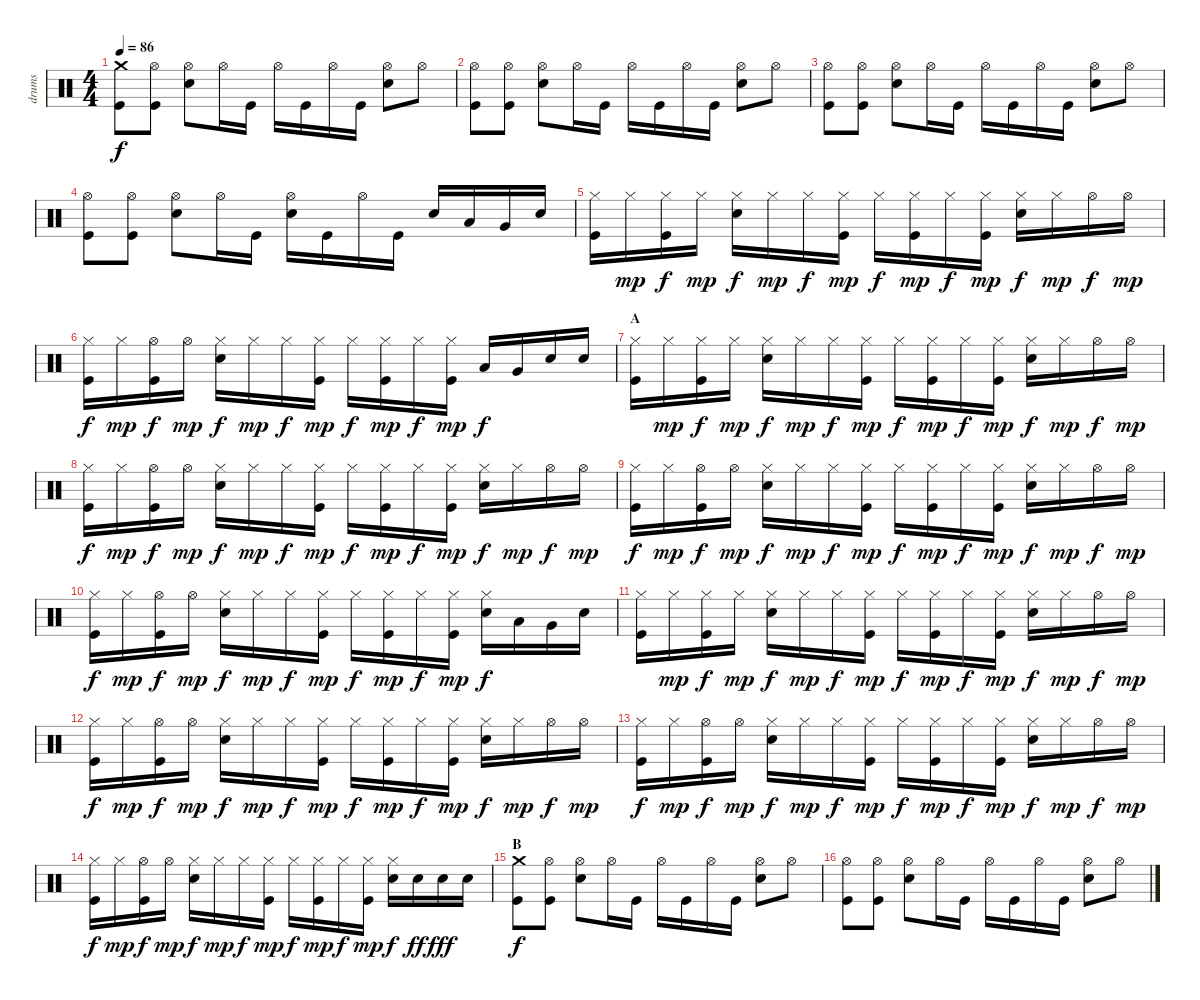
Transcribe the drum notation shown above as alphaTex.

\track ("drums" "drums") {instrument percussion}
\staff {score}
\articulation defaults
\ts (4 4)
\tempo 86
\clef neutral
\ks c
("Crash medium (hit)" "Kick (hit)").8{dy f} ("Hi-Hat (open)" "Kick (hit)").8 ("Hi-Hat (open)" "Electric Snare (hit)").8 "Hi-Hat (open)".16 "Kick (hit)".16 "Hi-Hat (open)".16 "Kick (hit)".16 "Hi-Hat (open)".16 "Kick (hit)".16 ("Hi-Hat (open)" "Electric Snare (hit)").8 "Hi-Hat (open)".8 |
("Hi-Hat (open)" "Kick (hit)").8 ("Hi-Hat (open)" "Kick (hit)").8 ("Hi-Hat (open)" "Electric Snare (hit)").8 "Hi-Hat (open)".16 "Kick (hit)".16 "Hi-Hat (open)".16 "Kick (hit)".16 "Hi-Hat (open)".16 "Kick (hit)".16 ("Hi-Hat (open)" "Electric Snare (hit)").8 "Hi-Hat (open)".8 |
("Hi-Hat (open)" "Kick (hit)").8 ("Hi-Hat (open)" "Kick (hit)").8 ("Hi-Hat (open)" "Electric Snare (hit)").8 "Hi-Hat (open)".16 "Kick (hit)".16 "Hi-Hat (open)".16 "Kick (hit)".16 "Hi-Hat (open)".16 "Kick (hit)".16 ("Hi-Hat (open)" "Electric Snare (hit)").8 "Hi-Hat (open)".8 |
("Hi-Hat (open)" "Kick (hit)").8 ("Hi-Hat (open)" "Kick (hit)").8 ("Hi-Hat (open)" "Electric Snare (hit)").8 "Hi-Hat (open)".16 "Kick (hit)".16 ("Hi-Hat (open)" "Electric Snare (hit)").16 "Kick (hit)".16 "Hi-Hat (open)".16 "Kick (hit)".16 "Electric Snare (hit)".16 "Low Tom (hit)".16 "Very Low Tom (hit)".16 "Electric Snare (hit)".16 |
("Hi-Hat (closed)" "Kick (hit)").16 "Hi-Hat (closed)".16{dy mp} ("Hi-Hat (closed)" "Kick (hit)").16{dy f} "Hi-Hat (closed)".16{dy mp} ("Hi-Hat (closed)" "Electric Snare (hit)").16{dy f} "Hi-Hat (closed)".16{dy mp} "Hi-Hat (closed)".16{dy f} ("Hi-Hat (closed)" "Kick (hit)").16{dy mp} "Hi-Hat (closed)".16{dy f} ("Hi-Hat (closed)" "Kick (hit)").16{dy mp} "Hi-Hat (closed)".16{dy f} ("Hi-Hat (closed)" "Kick (hit)").16{dy mp} ("Hi-Hat (closed)" "Electric Snare (hit)").16{dy f} "Hi-Hat (closed)".16{dy mp} "Hi-Hat (open)".16{dy f} "Hi-Hat (open)".16{dy mp} |
("Hi-Hat (closed)" "Kick (hit)").16{dy f} "Hi-Hat (closed)".16{dy mp} ("Hi-Hat (open)" "Kick (hit)").16{dy f} "Hi-Hat (open)".16{dy mp} ("Hi-Hat (closed)" "Electric Snare (hit)").16{dy f} "Hi-Hat (closed)".16{dy mp} "Hi-Hat (closed)".16{dy f} ("Hi-Hat (closed)" "Kick (hit)").16{dy mp} "Hi-Hat (closed)".16{dy f} ("Hi-Hat (closed)" "Kick (hit)").16{dy mp} "Hi-Hat (closed)".16{dy f} ("Hi-Hat (closed)" "Kick (hit)").16{dy mp} "Low Tom (hit)".16{dy f} "Very Low Tom (hit)".16 "Electric Snare (hit)".16 "Electric Snare (hit)".16 |
\section ("" "A")
("Hi-Hat (closed)" "Kick (hit)").16 "Hi-Hat (closed)".16{dy mp} ("Hi-Hat (closed)" "Kick (hit)").16{dy f} "Hi-Hat (closed)".16{dy mp} ("Hi-Hat (closed)" "Electric Snare (hit)").16{dy f} "Hi-Hat (closed)".16{dy mp} "Hi-Hat (closed)".16{dy f} ("Hi-Hat (closed)" "Kick (hit)").16{dy mp} "Hi-Hat (closed)".16{dy f} ("Hi-Hat (closed)" "Kick (hit)").16{dy mp} "Hi-Hat (closed)".16{dy f} ("Hi-Hat (closed)" "Kick (hit)").16{dy mp} ("Hi-Hat (closed)" "Electric Snare (hit)").16{dy f} "Hi-Hat (closed)".16{dy mp} "Hi-Hat (open)".16{dy f} "Hi-Hat (open)".16{dy mp} |
("Hi-Hat (closed)" "Kick (hit)").16{dy f} "Hi-Hat (closed)".16{dy mp} ("Hi-Hat (open)" "Kick (hit)").16{dy f} "Hi-Hat (open)".16{dy mp} ("Hi-Hat (closed)" "Electric Snare (hit)").16{dy f} "Hi-Hat (closed)".16{dy mp} "Hi-Hat (closed)".16{dy f} ("Hi-Hat (closed)" "Kick (hit)").16{dy mp} "Hi-Hat (closed)".16{dy f} ("Hi-Hat (closed)" "Kick (hit)").16{dy mp} "Hi-Hat (closed)".16{dy f} ("Hi-Hat (closed)" "Kick (hit)").16{dy mp} ("Hi-Hat (closed)" "Electric Snare (hit)").16{dy f} "Hi-Hat (closed)".16{dy mp} "Hi-Hat (open)".16{dy f} "Hi-Hat (open)".16{dy mp} |
("Hi-Hat (closed)" "Kick (hit)").16{dy f} "Hi-Hat (closed)".16{dy mp} ("Hi-Hat (open)" "Kick (hit)").16{dy f} "Hi-Hat (open)".16{dy mp} ("Hi-Hat (closed)" "Electric Snare (hit)").16{dy f} "Hi-Hat (closed)".16{dy mp} "Hi-Hat (closed)".16{dy f} ("Hi-Hat (closed)" "Kick (hit)").16{dy mp} "Hi-Hat (closed)".16{dy f} ("Hi-Hat (closed)" "Kick (hit)").16{dy mp} "Hi-Hat (closed)".16{dy f} ("Hi-Hat (closed)" "Kick (hit)").16{dy mp} ("Hi-Hat (closed)" "Electric Snare (hit)").16{dy f} "Hi-Hat (closed)".16{dy mp} "Hi-Hat (open)".16{dy f} "Hi-Hat (open)".16{dy mp} |
("Hi-Hat (closed)" "Kick (hit)").16{dy f} "Hi-Hat (closed)".16{dy mp} ("Hi-Hat (open)" "Kick (hit)").16{dy f} "Hi-Hat (open)".16{dy mp} ("Hi-Hat (closed)" "Electric Snare (hit)").16{dy f} "Hi-Hat (closed)".16{dy mp} "Hi-Hat (closed)".16{dy f} ("Hi-Hat (closed)" "Kick (hit)").16{dy mp} "Hi-Hat (closed)".16{dy f} ("Hi-Hat (closed)" "Kick (hit)").16{dy mp} "Hi-Hat (closed)".16{dy f} ("Hi-Hat (closed)" "Kick (hit)").16{dy mp} ("Hi-Hat (closed)" "Electric Snare (hit)").16{dy f} "Low Tom (hit)".16 "Very Low Tom (hit)".16 "Electric Snare (hit)".16 |
("Hi-Hat (closed)" "Kick (hit)").16 "Hi-Hat (closed)".16{dy mp} ("Hi-Hat (closed)" "Kick (hit)").16{dy f} "Hi-Hat (closed)".16{dy mp} ("Hi-Hat (closed)" "Electric Snare (hit)").16{dy f} "Hi-Hat (closed)".16{dy mp} "Hi-Hat (closed)".16{dy f} ("Hi-Hat (closed)" "Kick (hit)").16{dy mp} "Hi-Hat (closed)".16{dy f} ("Hi-Hat (closed)" "Kick (hit)").16{dy mp} "Hi-Hat (closed)".16{dy f} ("Hi-Hat (closed)" "Kick (hit)").16{dy mp} ("Hi-Hat (closed)" "Electric Snare (hit)").16{dy f} "Hi-Hat (closed)".16{dy mp} "Hi-Hat (open)".16{dy f} "Hi-Hat (open)".16{dy mp} |
("Hi-Hat (closed)" "Kick (hit)").16{dy f} "Hi-Hat (closed)".16{dy mp} ("Hi-Hat (open)" "Kick (hit)").16{dy f} "Hi-Hat (open)".16{dy mp} ("Hi-Hat (closed)" "Electric Snare (hit)").16{dy f} "Hi-Hat (closed)".16{dy mp} "Hi-Hat (closed)".16{dy f} ("Hi-Hat (closed)" "Kick (hit)").16{dy mp} "Hi-Hat (closed)".16{dy f} ("Hi-Hat (closed)" "Kick (hit)").16{dy mp} "Hi-Hat (closed)".16{dy f} ("Hi-Hat (closed)" "Kick (hit)").16{dy mp} ("Hi-Hat (closed)" "Electric Snare (hit)").16{dy f} "Hi-Hat (closed)".16{dy mp} "Hi-Hat (open)".16{dy f} "Hi-Hat (open)".16{dy mp} |
("Hi-Hat (closed)" "Kick (hit)").16{dy f} "Hi-Hat (closed)".16{dy mp} ("Hi-Hat (open)" "Kick (hit)").16{dy f} "Hi-Hat (open)".16{dy mp} ("Hi-Hat (closed)" "Electric Snare (hit)").16{dy f} "Hi-Hat (closed)".16{dy mp} "Hi-Hat (closed)".16{dy f} ("Hi-Hat (closed)" "Kick (hit)").16{dy mp} "Hi-Hat (closed)".16{dy f} ("Hi-Hat (closed)" "Kick (hit)").16{dy mp} "Hi-Hat (closed)".16{dy f} ("Hi-Hat (closed)" "Kick (hit)").16{dy mp} ("Hi-Hat (closed)" "Electric Snare (hit)").16{dy f} "Hi-Hat (closed)".16{dy mp} "Hi-Hat (open)".16{dy f} "Hi-Hat (open)".16{dy mp} |
("Hi-Hat (closed)" "Kick (hit)").16{dy f} "Hi-Hat (closed)".16{dy mp} ("Hi-Hat (open)" "Kick (hit)").16{dy f} "Hi-Hat (open)".16{dy mp} ("Hi-Hat (closed)" "Electric Snare (hit)").16{dy f} "Hi-Hat (closed)".16{dy mp} "Hi-Hat (closed)".16{dy f} ("Hi-Hat (closed)" "Kick (hit)").16{dy mp} "Hi-Hat (closed)".16{dy f} ("Hi-Hat (closed)" "Kick (hit)").16{dy mp} "Hi-Hat (closed)".16{dy f} ("Hi-Hat (closed)" "Kick (hit)").16{dy mp} ("Hi-Hat (closed)" "Electric Snare (hit)").16{dy f} "Electric Snare (hit)".16{dy ff} "Electric Snare (hit)".16{dy fff} "Electric Snare (hit)".16 |
\section ("" "B")
("Crash medium (hit)" "Kick (hit)").8{dy f} ("Hi-Hat (open)" "Kick (hit)").8 ("Hi-Hat (open)" "Electric Snare (hit)").8 "Hi-Hat (open)".16 "Kick (hit)".16 "Hi-Hat (open)".16 "Kick (hit)".16 "Hi-Hat (open)".16 "Kick (hit)".16 ("Hi-Hat (open)" "Electric Snare (hit)").8 "Hi-Hat (open)".8 |
("Hi-Hat (open)" "Kick (hit)").8 ("Hi-Hat (open)" "Kick (hit)").8 ("Hi-Hat (open)" "Electric Snare (hit)").8 "Hi-Hat (open)".16 "Kick (hit)".16 "Hi-Hat (open)".16 "Kick (hit)".16 "Hi-Hat (open)".16 "Kick (hit)".16 ("Hi-Hat (open)" "Electric Snare (hit)").8 "Hi-Hat (open)".8
